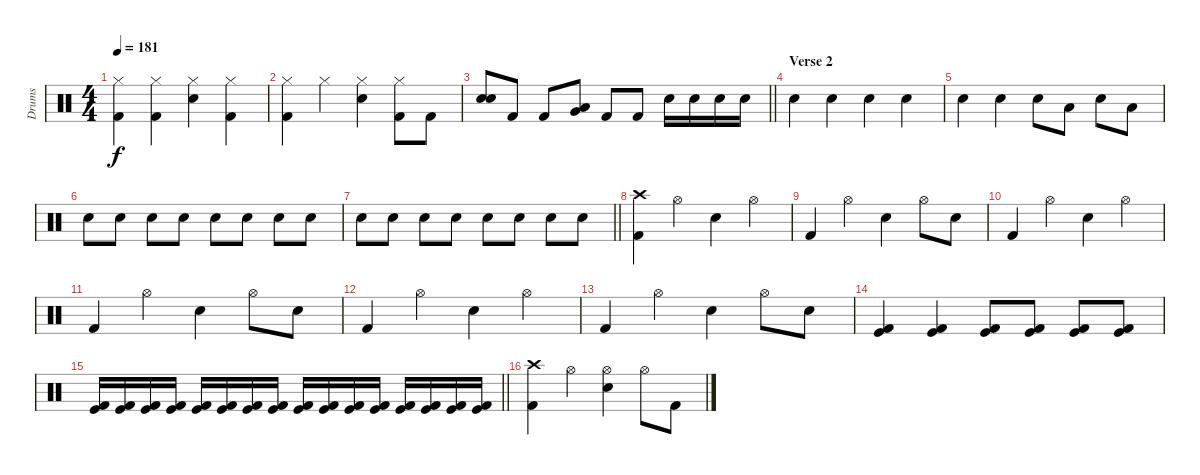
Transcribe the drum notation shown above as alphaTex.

\track ("Drums" "Drums") {instrument percussion}
\staff {score}
\articulation defaults
\ts (4 4)
\tempo 181
\clef neutral
\ks c
("Hi-Hat (closed)" "Kick (hit) 2").4{dy f} ("Hi-Hat (closed)" "Kick (hit) 2").4 ("Hi-Hat (closed)" "Snare (hit) 2").4 ("Hi-Hat (closed)" "Kick (hit) 2").4 |
("Hi-Hat (closed)" "Kick (hit) 2").4 "Hi-Hat (closed)".4 ("Hi-Hat (closed)" "Snare (hit) 2").4 ("Hi-Hat (closed)" "Kick (hit) 2").8 "Kick (hit) 2".8 |
\barLineRight lightlight
("Snare (hit) 2" "Snare (hit) 2").8 "Kick (hit) 2".8 "Kick (hit) 2".8 ("Very Low Tom (hit)" "Low Tom (hit)").8 "Kick (hit) 2".8 "Kick (hit) 2".8 "Snare (hit) 2".16 "Snare (hit) 2".16 "Snare (hit) 2".16 "Snare (hit) 2".16 |
\section ("" "Verse 2")
"Hand Clap (hit)".4 "Hand Clap (hit)".4 "Hand Clap (hit)".4 "Hand Clap (hit)".4 |
"Hand Clap (hit)".4 "Hand Clap (hit)".4 "Hand Clap (hit)".8 "Low Tom (hit)".8 "Hand Clap (hit)".8 "Low Tom (hit)".8 |
"Hand Clap (hit)".8 "Hand Clap (hit)".8 "Hand Clap (hit)".8 "Hand Clap (hit)".8 "Hand Clap (hit)".8 "Hand Clap (hit)".8 "Hand Clap (hit)".8 "Hand Clap (hit)".8 |
\barLineRight lightlight "Hand Clap (hit)".8 "Hand Clap (hit)".8 "Hand Clap (hit)".8 "Hand Clap (hit)".8 "Hand Clap (hit)".8 "Hand Clap (hit)".8 "Hand Clap (hit)".8 "Hand Clap (hit)".8
|
("Crash high (hit)" "Kick (hit) 2").4 "Hi-Hat (open)".4 "Snare (hit) 2".4 "Hi-Hat (open)".4 |
"Kick (hit) 2".4 "Hi-Hat (open)".4 "Snare (hit) 2".4 "Hi-Hat (open)".8 "Snare (hit) 2".8 |
"Kick (hit) 2".4 "Hi-Hat (open)".4 "Snare (hit) 2".4 "Hi-Hat (open)".4 |
"Kick (hit) 2".4 "Hi-Hat (open)".4 "Snare (hit) 2".4 "Hi-Hat (open)".8 "Snare (hit) 2".8 |
"Kick (hit) 2".4 "Hi-Hat (open)".4 "Snare (hit) 2".4 "Hi-Hat (open)".4 |
"Kick (hit) 2".4 "Hi-Hat (open)".4 "Snare (hit) 2".4 "Hi-Hat (open)".8 "Snare (hit) 2".8 |
("Kick (hit)" "Kick (hit) 2").4 ("Kick (hit)" "Kick (hit) 2").4 ("Kick (hit)" "Kick (hit) 2").8 ("Kick (hit)" "Kick (hit) 2").8 ("Kick (hit)" "Kick (hit) 2").8 ("Kick (hit)" "Kick (hit) 2").8 |
\barLineRight lightlight
("Kick (hit)" "Kick (hit) 2").16 ("Kick (hit)" "Kick (hit) 2").16 ("Kick (hit)" "Kick (hit) 2").16 ("Kick (hit)" "Kick (hit) 2").16 ("Kick (hit)" "Kick (hit) 2").16 ("Kick (hit)" "Kick (hit) 2").16 ("Kick (hit)" "Kick (hit) 2").16 ("Kick (hit)" "Kick (hit) 2").16 ("Kick (hit)" "Kick (hit) 2").16 ("Kick (hit)" "Kick (hit) 2").16 ("Kick (hit)" "Kick (hit) 2").16 ("Kick (hit)" "Kick (hit) 2").16 ("Kick (hit)" "Kick (hit) 2").16 ("Kick (hit)" "Kick (hit) 2").16 ("Kick (hit)" "Kick (hit) 2").16 ("Kick (hit)" "Kick (hit) 2").16 |
("Crash high (hit)" "Kick (hit) 2").4 "Hi-Hat (open)".4 ("Hi-Hat (open)" "Snare (hit) 2").4 "Hi-Hat (open)".8 "Kick (hit) 2".8
